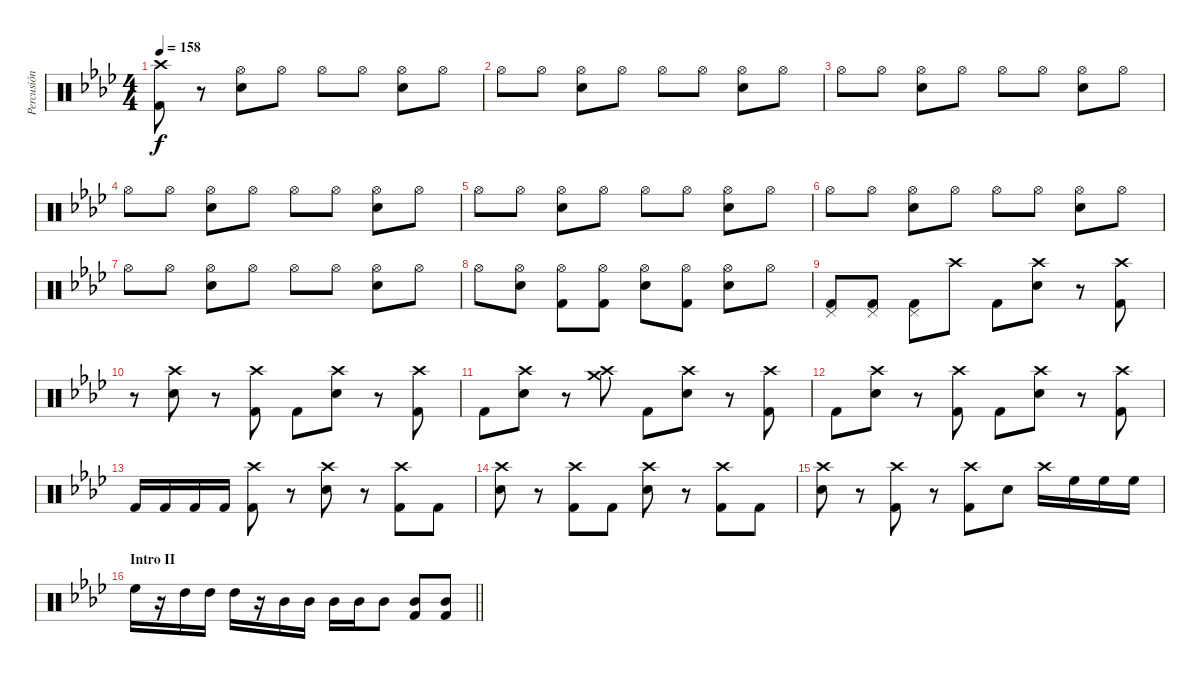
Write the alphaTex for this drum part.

\track ("Percusión" "Percusión") {instrument percussion}
\staff {score}
\articulation defaults
\ts (4 4)
\tempo 158
\clef neutral
\ks ab
("Crash high (hit)" "Kick (hit) 2").8{dy f} r.8 ("Hi-Hat (open)" "Snare (hit) 2").8 "Hi-Hat (open)".8 "Hi-Hat (open)".8 "Hi-Hat (open)".8 ("Hi-Hat (open)" "Snare (hit) 2").8 "Hi-Hat (open)".8 |
"Hi-Hat (open)".8 "Hi-Hat (open)".8 ("Hi-Hat (open)" "Snare (hit) 2").8 "Hi-Hat (open)".8 "Hi-Hat (open)".8 "Hi-Hat (open)".8 ("Hi-Hat (open)" "Snare (hit) 2").8 "Hi-Hat (open)".8 |
"Hi-Hat (open)".8 "Hi-Hat (open)".8 ("Hi-Hat (open)" "Snare (hit) 2").8 "Hi-Hat (open)".8 "Hi-Hat (open)".8 "Hi-Hat (open)".8 ("Hi-Hat (open)" "Snare (hit) 2").8 "Hi-Hat (open)".8 |
"Hi-Hat (open)".8 "Hi-Hat (open)".8 ("Hi-Hat (open)" "Snare (hit) 2").8 "Hi-Hat (open)".8 "Hi-Hat (open)".8 "Hi-Hat (open)".8 ("Hi-Hat (open)" "Snare (hit) 2").8 "Hi-Hat (open)".8 |
"Hi-Hat (open)".8 "Hi-Hat (open)".8 ("Hi-Hat (open)" "Snare (hit) 2").8 "Hi-Hat (open)".8 "Hi-Hat (open)".8 "Hi-Hat (open)".8 ("Hi-Hat (open)" "Snare (hit) 2").8 "Hi-Hat (open)".8 |
"Hi-Hat (open)".8 "Hi-Hat (open)".8 ("Hi-Hat (open)" "Snare (hit) 2").8 "Hi-Hat (open)".8 "Hi-Hat (open)".8 "Hi-Hat (open)".8 ("Hi-Hat (open)" "Snare (hit) 2").8 "Hi-Hat (open)".8 |
"Hi-Hat (open)".8 "Hi-Hat (open)".8 ("Hi-Hat (open)" "Snare (hit) 2").8 "Hi-Hat (open)".8 "Hi-Hat (open)".8 "Hi-Hat (open)".8 ("Hi-Hat (open)" "Snare (hit) 2").8 "Hi-Hat (open)".8 |
"Hi-Hat (open)".8 ("Hi-Hat (open)" "Snare (hit) 2").8 ("Hi-Hat (open)" "Kick (hit) 2").8 ("Hi-Hat (open)" "Kick (hit) 2").8 ("Hi-Hat (open)" "Snare (hit) 2").8 ("Hi-Hat (open)" "Kick (hit) 2").8 ("Hi-Hat (open)" "Snare (hit) 2").8 "Hi-Hat (open)".8 |
("Pedal Hi-Hat (hit)" "Kick (hit) 2").8 ("Pedal Hi-Hat (hit)" "Kick (hit) 2").8 ("Pedal Hi-Hat (hit)" "Kick (hit) 2").8 "Crash high (hit)".8 "Kick (hit) 2".8 ("Crash high (hit)" "Snare (hit) 2").8 r.8 ("Crash high (hit)" "Kick (hit) 2").8 |
r.8 ("Crash high (hit)" "Snare (hit) 2").8 r.8 ("Crash high (hit)" "Kick (hit) 2").8 "Kick (hit) 2".8 ("Crash high (hit)" "Snare (hit) 2").8 r.8 ("Crash high (hit)" "Kick (hit) 2").8 |
"Kick (hit) 2".8 ("Crash high (hit)" "Snare (hit) 2").8 r.8 ("Crash high (hit)" "Crash medium (hit)").8 "Kick (hit) 2".8 ("Crash high (hit)" "Snare (hit) 2").8 r.8 ("Crash high (hit)" "Kick (hit) 2").8 |
"Kick (hit) 2".8 ("Crash high (hit)" "Snare (hit) 2").8 r.8 ("Crash high (hit)" "Kick (hit) 2").8 "Kick (hit) 2".8 ("Crash high (hit)" "Snare (hit) 2").8 r.8 ("Crash high (hit)" "Kick (hit) 2").8 |
"Kick (hit) 2".16 "Kick (hit) 2".16 "Kick (hit) 2".16 "Kick (hit) 2".16 ("Crash high (hit)" "Kick (hit) 2").8 r.8 ("Crash high (hit)" "Snare (hit) 2").8 r.8 ("Crash high (hit)" "Kick (hit) 2").8 "Kick (hit) 2".8 |
("Crash high (hit)" "Snare (hit) 2").8 r.8 ("Crash high (hit)" "Kick (hit) 2").8 "Kick (hit) 2".8 ("Crash high (hit)" "Snare (hit) 2").8 r.8 ("Crash high (hit)" "Kick (hit) 2").8 "Kick (hit) 2".8 |
("Crash high (hit)" "Snare (hit) 2").8 r.8 ("Crash high (hit)" "Kick (hit) 2").8 r.8 ("Crash high (hit)" "Kick (hit) 2").8 "Snare (hit) 2".8 "Crash high (hit)".16 "High Floor Tom (hit)".16 "High Floor Tom (hit)".16 "High Floor Tom (hit)".16 |
\section ("" "Intro II")
\barLineRight lightlight "High Floor Tom (hit)".16
r.16 "High Tom (hit)".16 "High Tom (hit)".16 "High Tom (hit)".16 r.16 "Mid Tom (hit)".16 "Mid Tom (hit)".16 "Mid Tom (hit)".16 "Mid Tom (hit)".16 "Mid Tom (hit)".8 ("Mid Tom (hit)" "Kick (hit) 2").8 ("Mid Tom (hit)" "Kick (hit) 2").8
